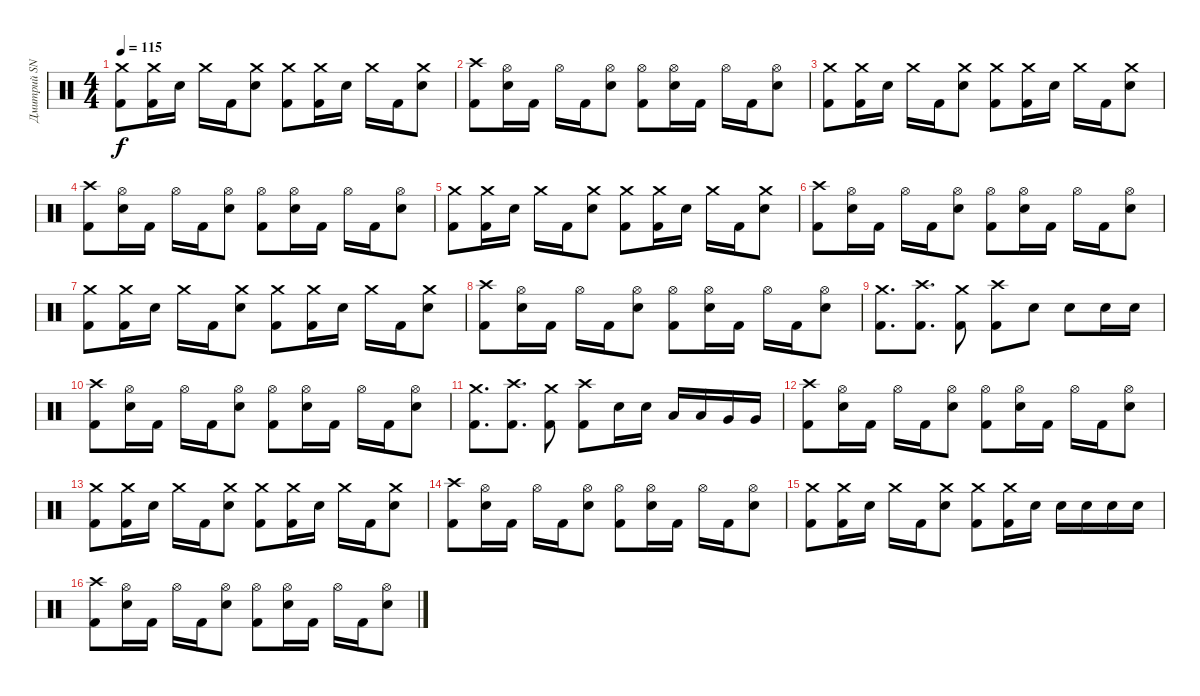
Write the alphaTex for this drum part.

\track ("Дмитрий SNAKE Хакимов" "Дмитрий SN") {instrument percussion}
\staff {score}
\articulation defaults
\ts (4 4)
\tempo 115
\clef neutral
\ks c
("Crash medium (hit)" "Kick (hit) 2").8{dy f} ("Crash medium (hit)" "Kick (hit) 2").16 "Snare (hit) 2".16 "Crash medium (hit)".16 "Kick (hit) 2".16 ("Crash medium (hit)" "Snare (hit) 2").8 ("Crash medium (hit)" "Kick (hit) 2").8 ("Crash medium (hit)" "Kick (hit) 2").16 "Snare (hit) 2".16 "Crash medium (hit)".16 "Kick (hit) 2".16 ("Crash medium (hit)" "Snare (hit) 2").8 |
("Crash high (hit)" "Kick (hit) 2").8 ("Hi-Hat (open)" "Snare (hit) 2").16 "Kick (hit) 2".16 "Hi-Hat (open)".16 "Kick (hit) 2".16 ("Hi-Hat (open)" "Snare (hit) 2").8 ("Hi-Hat (open)" "Kick (hit) 2").8 ("Hi-Hat (open)" "Snare (hit) 2").16 "Kick (hit) 2".16 "Hi-Hat (open)".16 "Kick (hit) 2".16 ("Hi-Hat (open)" "Snare (hit) 2").8 |
("Crash medium (hit)" "Kick (hit) 2").8 ("Crash medium (hit)" "Kick (hit) 2").16 "Snare (hit) 2".16 "Crash medium (hit)".16 "Kick (hit) 2".16 ("Crash medium (hit)" "Snare (hit) 2").8 ("Crash medium (hit)" "Kick (hit) 2").8 ("Crash medium (hit)" "Kick (hit) 2").16 "Snare (hit) 2".16 "Crash medium (hit)".16 "Kick (hit) 2".16 ("Crash medium (hit)" "Snare (hit) 2").8 |
("Crash high (hit)" "Kick (hit) 2").8 ("Hi-Hat (open)" "Snare (hit) 2").16 "Kick (hit) 2".16 "Hi-Hat (open)".16 "Kick (hit) 2".16 ("Hi-Hat (open)" "Snare (hit) 2").8 ("Hi-Hat (open)" "Kick (hit) 2").8 ("Hi-Hat (open)" "Snare (hit) 2").16 "Kick (hit) 2".16 "Hi-Hat (open)".16 "Kick (hit) 2".16 ("Hi-Hat (open)" "Snare (hit) 2").8 |
("Crash medium (hit)" "Kick (hit) 2").8 ("Crash medium (hit)" "Kick (hit) 2").16 "Snare (hit) 2".16 "Crash medium (hit)".16 "Kick (hit) 2".16 ("Crash medium (hit)" "Snare (hit) 2").8 ("Crash medium (hit)" "Kick (hit) 2").8 ("Crash medium (hit)" "Kick (hit) 2").16 "Snare (hit) 2".16 "Crash medium (hit)".16 "Kick (hit) 2".16 ("Crash medium (hit)" "Snare (hit) 2").8 |
("Crash high (hit)" "Kick (hit) 2").8 ("Hi-Hat (open)" "Snare (hit) 2").16 "Kick (hit) 2".16 "Hi-Hat (open)".16 "Kick (hit) 2".16 ("Hi-Hat (open)" "Snare (hit) 2").8 ("Hi-Hat (open)" "Kick (hit) 2").8 ("Hi-Hat (open)" "Snare (hit) 2").16 "Kick (hit) 2".16 "Hi-Hat (open)".16 "Kick (hit) 2".16 ("Hi-Hat (open)" "Snare (hit) 2").8 |
("Crash medium (hit)" "Kick (hit) 2").8 ("Crash medium (hit)" "Kick (hit) 2").16 "Snare (hit) 2".16 "Crash medium (hit)".16 "Kick (hit) 2".16 ("Crash medium (hit)" "Snare (hit) 2").8 ("Crash medium (hit)" "Kick (hit) 2").8 ("Crash medium (hit)" "Kick (hit) 2").16 "Snare (hit) 2".16 "Crash medium (hit)".16 "Kick (hit) 2".16 ("Crash medium (hit)" "Snare (hit) 2").8 |
("Crash high (hit)" "Kick (hit) 2").8 ("Hi-Hat (open)" "Snare (hit) 2").16 "Kick (hit) 2".16 "Hi-Hat (open)".16 "Kick (hit) 2".16 ("Hi-Hat (open)" "Snare (hit) 2").8 ("Hi-Hat (open)" "Kick (hit) 2").8 ("Hi-Hat (open)" "Snare (hit) 2").16 "Kick (hit) 2".16 "Hi-Hat (open)".16 "Kick (hit) 2".16 ("Hi-Hat (open)" "Snare (hit) 2").8 |
("Crash medium (hit)" "Kick (hit) 2").8{d} ("Crash high (hit)" "Kick (hit) 2").8{d} ("Crash medium (hit)" "Kick (hit) 2").8 ("Crash high (hit)" "Kick (hit) 2").8 "Snare (hit) 2".8 "Snare (hit) 2".8 "Snare (hit) 2".16 "Snare (hit) 2".16 |
("Crash high (hit)" "Kick (hit) 2").8 ("Hi-Hat (open)" "Snare (hit) 2").16 "Kick (hit) 2".16 "Hi-Hat (open)".16 "Kick (hit) 2".16 ("Hi-Hat (open)" "Snare (hit) 2").8 ("Hi-Hat (open)" "Kick (hit) 2").8 ("Hi-Hat (open)" "Snare (hit) 2").16 "Kick (hit) 2".16 "Hi-Hat (open)".16 "Kick (hit) 2".16 ("Hi-Hat (open)" "Snare (hit) 2").8 |
("Crash medium (hit)" "Kick (hit) 2").8{d} ("Crash high (hit)" "Kick (hit) 2").8{d} ("Crash medium (hit)" "Kick (hit) 2").8 ("Crash high (hit)" "Kick (hit) 2").8 "Snare (hit) 2".16 "Snare (hit) 2".16 "Low Tom (hit)".16 "Low Tom (hit)".16 "Very Low Tom (hit)".16 "Very Low Tom (hit)".16 |
("Crash high (hit)" "Kick (hit) 2").8 ("Hi-Hat (open)" "Snare (hit) 2").16 "Kick (hit) 2".16 "Hi-Hat (open)".16 "Kick (hit) 2".16 ("Hi-Hat (open)" "Snare (hit) 2").8 ("Hi-Hat (open)" "Kick (hit) 2").8 ("Hi-Hat (open)" "Snare (hit) 2").16 "Kick (hit) 2".16 "Hi-Hat (open)".16 "Kick (hit) 2".16 ("Hi-Hat (open)" "Snare (hit) 2").8 |
("Crash medium (hit)" "Kick (hit) 2").8 ("Crash medium (hit)" "Kick (hit) 2").16 "Snare (hit) 2".16 "Crash medium (hit)".16 "Kick (hit) 2".16 ("Crash medium (hit)" "Snare (hit) 2").8 ("Crash medium (hit)" "Kick (hit) 2").8 ("Crash medium (hit)" "Kick (hit) 2").16 "Snare (hit) 2".16 "Crash medium (hit)".16 "Kick (hit) 2".16 ("Crash medium (hit)" "Snare (hit) 2").8 |
("Crash high (hit)" "Kick (hit) 2").8 ("Hi-Hat (open)" "Snare (hit) 2").16 "Kick (hit) 2".16 "Hi-Hat (open)".16 "Kick (hit) 2".16 ("Hi-Hat (open)" "Snare (hit) 2").8 ("Hi-Hat (open)" "Kick (hit) 2").8 ("Hi-Hat (open)" "Snare (hit) 2").16 "Kick (hit) 2".16 "Hi-Hat (open)".16 "Kick (hit) 2".16 ("Hi-Hat (open)" "Snare (hit) 2").8 |
("Crash medium (hit)" "Kick (hit) 2").8 ("Crash medium (hit)" "Kick (hit) 2").16 "Snare (hit) 2".16 "Crash medium (hit)".16 "Kick (hit) 2".16 ("Crash medium (hit)" "Snare (hit) 2").8 ("Crash medium (hit)" "Kick (hit) 2").8 ("Crash medium (hit)" "Kick (hit) 2").16 "Snare (hit) 2".16 "Snare (hit) 2".16 "Snare (hit) 2".16 "Snare (hit) 2".16 "Snare (hit) 2".16 |
("Crash high (hit)" "Kick (hit) 2").8 ("Hi-Hat (open)" "Snare (hit) 2").16 "Kick (hit) 2".16 "Hi-Hat (open)".16 "Kick (hit) 2".16 ("Hi-Hat (open)" "Snare (hit) 2").8 ("Hi-Hat (open)" "Kick (hit) 2").8 ("Hi-Hat (open)" "Snare (hit) 2").16 "Kick (hit) 2".16 "Hi-Hat (open)".16 "Kick (hit) 2".16 ("Hi-Hat (open)" "Snare (hit) 2").8
